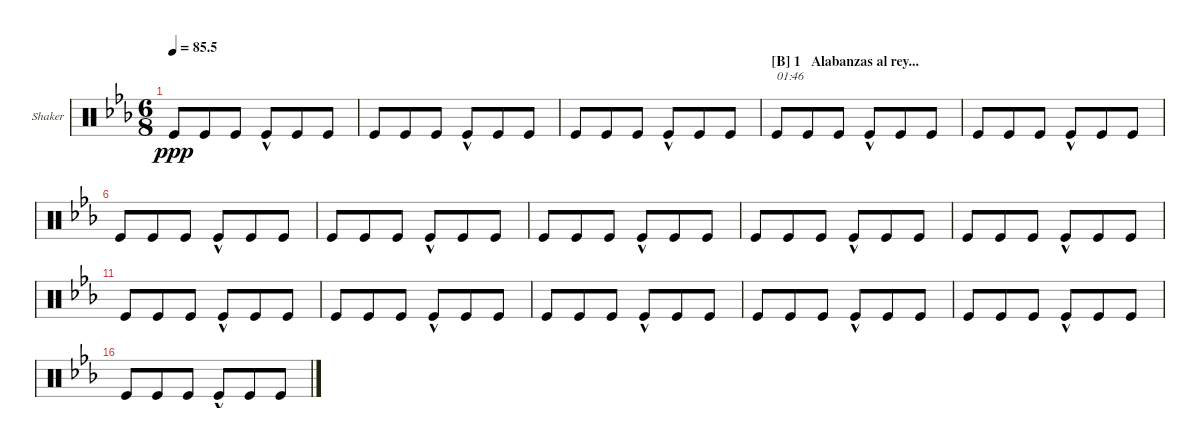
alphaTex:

\defaultSystemsLayout 4
\bracketExtendMode groupsimilarinstruments
\multiTrackTrackNamePolicy allsystems
\firstSystemTrackNameOrientation horizontal
\otherSystemsTrackNameOrientation horizontal
\defaultBarNumberDisplay FirstOfSystem
\track ("Shaker" "Shaker") {instrument percussion}
\staff {score}
\articulation defaults
\ts (6 8)
\tempo
85.5
\accidentals auto
\clef neutral
\ottava regular
\simile none
\scale
0.333333
\ks eb "Kick (hit)".8{dy ppp} "Kick (hit)".8 "Kick (hit)".8 "Kick (hit)"{hac}.8 "Kick (hit)".8 "Kick (hit)".8
|
\scale
0.333333 "Kick (hit)".8 "Kick (hit)".8 "Kick (hit)".8 "Kick (hit)"{hac}.8 "Kick (hit)".8 "Kick (hit)".8 |
\scale
0.333333 "Kick (hit)".8 "Kick (hit)".8 "Kick (hit)".8 "Kick (hit)"{hac}.8 "Kick (hit)".8 "Kick (hit)".8 |
\section ("B" "1   Alabanzas al rey...")
\scale
0.333333 "Kick (hit)".8{txt "01:46"} "Kick (hit)".8 "Kick (hit)".8 "Kick (hit)"{hac}.8 "Kick (hit)".8 "Kick (hit)".8 |
\scale
0.333333 "Kick (hit)".8 "Kick (hit)".8 "Kick (hit)".8 "Kick (hit)"{hac}.8 "Kick (hit)".8 "Kick (hit)".8 |
\scale
0.333333 "Kick (hit)".8 "Kick (hit)".8 "Kick (hit)".8 "Kick (hit)"{hac}.8 "Kick (hit)".8 "Kick (hit)".8 |
\scale
0.333333 "Kick (hit)".8 "Kick (hit)".8 "Kick (hit)".8 "Kick (hit)"{hac}.8 "Kick (hit)".8 "Kick (hit)".8 |
\scale
0.333333 "Kick (hit)".8 "Kick (hit)".8 "Kick (hit)".8 "Kick (hit)"{hac}.8 "Kick (hit)".8 "Kick (hit)".8 |
\scale
0.333333 "Kick (hit)".8 "Kick (hit)".8 "Kick (hit)".8 "Kick (hit)"{hac}.8 "Kick (hit)".8 "Kick (hit)".8 |
\scale
0.333333 "Kick (hit)".8 "Kick (hit)".8 "Kick (hit)".8 "Kick (hit)"{hac}.8 "Kick (hit)".8 "Kick (hit)".8 |
\scale
0.333333 "Kick (hit)".8 "Kick (hit)".8 "Kick (hit)".8 "Kick (hit)"{hac}.8 "Kick (hit)".8 "Kick (hit)".8 |
\scale
0.333333 "Kick (hit)".8 "Kick (hit)".8 "Kick (hit)".8 "Kick (hit)"{hac}.8 "Kick (hit)".8 "Kick (hit)".8 |
\scale
0.333333 "Kick (hit)".8 "Kick (hit)".8 "Kick (hit)".8 "Kick (hit)"{hac}.8 "Kick (hit)".8 "Kick (hit)".8 |
\scale
0.333333 "Kick (hit)".8 "Kick (hit)".8 "Kick (hit)".8 "Kick (hit)"{hac}.8 "Kick (hit)".8 "Kick (hit)".8 |
\scale
0.333333 "Kick (hit)".8 "Kick (hit)".8 "Kick (hit)".8 "Kick (hit)"{hac}.8 "Kick (hit)".8 "Kick (hit)".8 |
\scale
0.333333 "Kick (hit)".8 "Kick (hit)".8 "Kick (hit)".8 "Kick (hit)"{hac}.8 "Kick (hit)".8 "Kick (hit)".8
